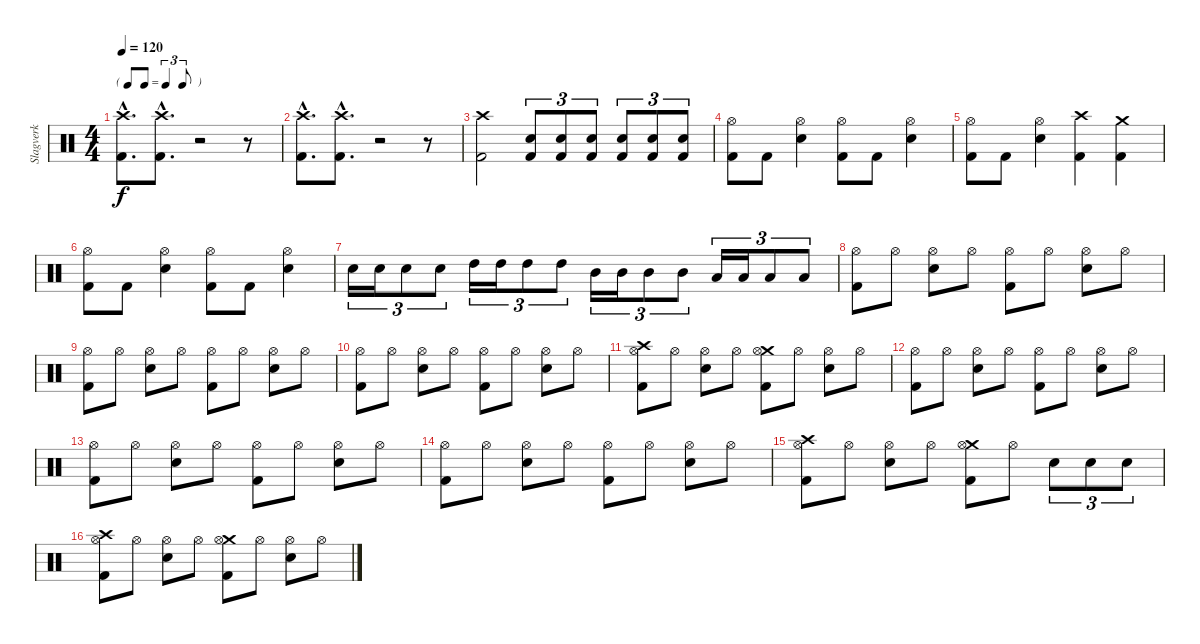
\track ("Slagverk" "Slagverk") {instrument percussion}
\staff {score}
\articulation defaults
\ts (4 4)
\tf triplet8th
\tempo 120
\clef neutral
\ks c
("Crash high (hit)"{hac} "Kick (hit) 2"{hac}).8{d dy f} ("Crash high (hit)"{hac} "Kick (hit) 2"{hac}).8{d} r.2 r.8 |
("Crash high (hit)"{hac} "Kick (hit) 2"{hac}).8{d} ("Crash high (hit)"{hac} "Kick (hit) 2"{hac}).8{d} r.2 r.8 |
("Crash high (hit)" "Kick (hit) 2").2 ("Electric Snare (hit)" "Kick (hit) 2").8{tu (3 2)} ("Electric Snare (hit)" "Kick (hit) 2").8{tu (3 2)} ("Electric Snare (hit)" "Kick (hit) 2").8{tu (3 2)} ("Electric Snare (hit)" "Kick (hit) 2").8{tu (3 2)} ("Electric Snare (hit)" "Kick (hit) 2").8{tu (3 2)} ("Electric Snare (hit)" "Kick (hit) 2").8{tu (3 2)} |
("Hi-Hat (open)" "Kick (hit) 2").8 "Kick (hit) 2".8 ("Electric Snare (hit)" "Hi-Hat (open)").4 ("Hi-Hat (open)" "Kick (hit) 2").8 "Kick (hit) 2".8 ("Electric Snare (hit)" "Hi-Hat (open)").4 |
("Hi-Hat (open)" "Kick (hit) 2").8 "Kick (hit) 2".8 ("Electric Snare (hit)" "Hi-Hat (open)").4 ("Crash high (hit)" "Kick (hit) 2").4 ("Crash medium (hit)" "Kick (hit) 2").4 |
("Hi-Hat (open)" "Kick (hit) 2").8 "Kick (hit) 2".8 ("Electric Snare (hit)" "Hi-Hat (open)").4 ("Hi-Hat (open)" "Kick (hit) 2").8 "Kick (hit) 2".8 ("Electric Snare (hit)" "Hi-Hat (open)").4 |
"Electric Snare (hit)".16{tu (3 2)} "Electric Snare (hit)".16{tu (3 2)} "Electric Snare (hit)".8{tu (3 2)} "Electric Snare (hit)".8{tu (3 2)} "High Tom (hit)".16{tu (3 2)} "High Tom (hit)".16{tu (3 2)} "High Tom (hit)".8{tu (3 2)} "High Tom (hit)".8{tu (3 2)} "Mid Tom (hit)".16{tu (3 2)} "Mid Tom (hit)".16{tu (3 2)} "Mid Tom (hit)".8{tu (3 2)} "Mid Tom (hit)".8{tu (3 2)} "Low Tom (hit)".16{tu (3 2)} "Low Tom (hit)".16{tu (3 2)} "Low Tom (hit)".8{tu (3 2)} "Low Tom (hit)".8{tu (3 2)} |
("Hi-Hat (open)" "Kick (hit) 2").8 "Hi-Hat (open)".8 ("Electric Snare (hit)" "Hi-Hat (open)").8 "Hi-Hat (open)".8 ("Hi-Hat (open)" "Kick (hit) 2").8 "Hi-Hat (open)".8 ("Electric Snare (hit)" "Hi-Hat (open)").8 "Hi-Hat (open)".8 |
("Hi-Hat (open)" "Kick (hit) 2").8 "Hi-Hat (open)".8 ("Electric Snare (hit)" "Hi-Hat (open)").8 "Hi-Hat (open)".8 ("Hi-Hat (open)" "Kick (hit) 2").8 "Hi-Hat (open)".8 ("Electric Snare (hit)" "Hi-Hat (open)").8 "Hi-Hat (open)".8 |
("Hi-Hat (open)" "Kick (hit) 2").8 "Hi-Hat (open)".8 ("Electric Snare (hit)" "Hi-Hat (open)").8 "Hi-Hat (open)".8 ("Hi-Hat (open)" "Kick (hit) 2").8 "Hi-Hat (open)".8 ("Electric Snare (hit)" "Hi-Hat (open)").8 "Hi-Hat (open)".8 |
("Crash high (hit)" "Hi-Hat (open)" "Kick (hit) 2").8 "Hi-Hat (open)".8 ("Electric Snare (hit)" "Hi-Hat (open)").8 "Hi-Hat (open)".8 ("Crash medium (hit)" "Hi-Hat (open)" "Kick (hit) 2").8 "Hi-Hat (open)".8 ("Electric Snare (hit)" "Hi-Hat (open)").8 "Hi-Hat (open)".8 |
("Hi-Hat (open)" "Kick (hit) 2").8 "Hi-Hat (open)".8 ("Electric Snare (hit)" "Hi-Hat (open)").8 "Hi-Hat (open)".8 ("Hi-Hat (open)" "Kick (hit) 2").8 "Hi-Hat (open)".8 ("Electric Snare (hit)" "Hi-Hat (open)").8 "Hi-Hat (open)".8 |
("Hi-Hat (open)" "Kick (hit) 2").8 "Hi-Hat (open)".8 ("Electric Snare (hit)" "Hi-Hat (open)").8 "Hi-Hat (open)".8 ("Hi-Hat (open)" "Kick (hit) 2").8 "Hi-Hat (open)".8 ("Electric Snare (hit)" "Hi-Hat (open)").8 "Hi-Hat (open)".8 |
("Hi-Hat (open)" "Kick (hit) 2").8 "Hi-Hat (open)".8 ("Electric Snare (hit)" "Hi-Hat (open)").8 "Hi-Hat (open)".8 ("Hi-Hat (open)" "Kick (hit) 2").8 "Hi-Hat (open)".8 ("Electric Snare (hit)" "Hi-Hat (open)").8 "Hi-Hat (open)".8 |
("Crash high (hit)" "Hi-Hat (open)" "Kick (hit) 2").8 "Hi-Hat (open)".8 ("Electric Snare (hit)" "Hi-Hat (open)").8 "Hi-Hat (open)".8 ("Crash medium (hit)" "Hi-Hat (open)" "Kick (hit) 2").8 "Hi-Hat (open)".8 "Electric Snare (hit)".8{tu (3 2)} "Electric Snare (hit)".8{tu (3 2)} "Electric Snare (hit)".8{tu (3 2)} |
("Crash high (hit)" "Hi-Hat (open)" "Kick (hit) 2").8 "Hi-Hat (open)".8 ("Electric Snare (hit)" "Hi-Hat (open)").8 "Hi-Hat (open)".8 ("Crash medium (hit)" "Hi-Hat (open)" "Kick (hit) 2").8 "Hi-Hat (open)".8 ("Electric Snare (hit)" "Hi-Hat (open)").8 "Hi-Hat (open)".8
